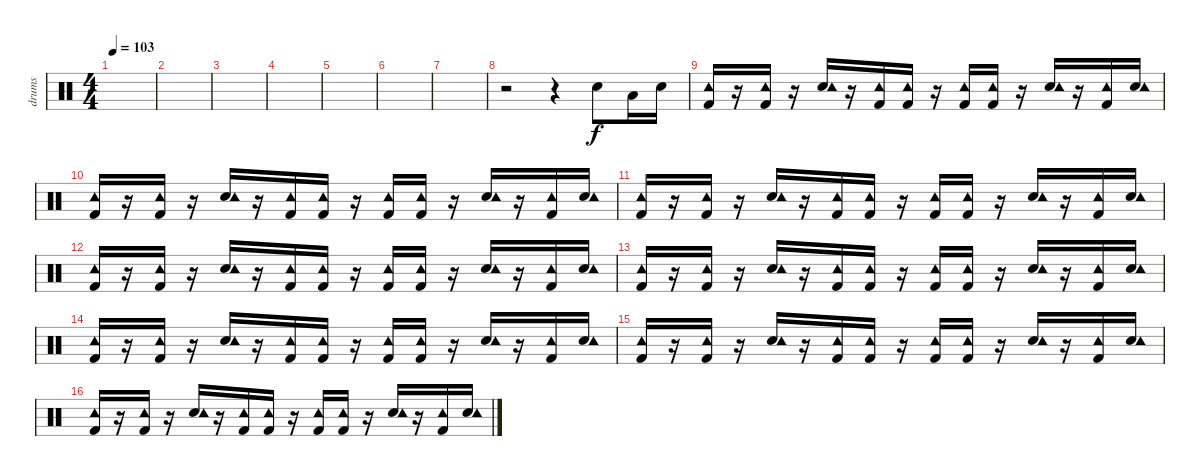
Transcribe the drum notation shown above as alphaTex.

\track ("drums" "drums") {instrument percussion}
\staff {score}
\articulation defaults
\ts (4 4)
\tempo 103
\clef neutral
\ks c
|
|
|
|
|
|
|
r.2 r.4 "Electric Snare (hit)".8 "Low Tom (hit)".16 "Electric Snare (hit)".16 |
("Kick (hit) 2" "Tambourine (hit)").16 r.16 ("Kick (hit) 2" "Tambourine (hit)").16 r.16 ("Electric Snare (hit)" "Tambourine (hit)").16 r.16 ("Kick (hit) 2" "Tambourine (hit)").16 ("Kick (hit) 2" "Tambourine (hit)").16 r.16 ("Kick (hit) 2" "Tambourine (hit)").16 ("Kick (hit) 2" "Tambourine (hit)").16 r.16 ("Electric Snare (hit)" "Tambourine (hit)").16 r.16 ("Kick (hit) 2" "Tambourine (hit)").16 ("Electric Snare (hit)" "Tambourine (hit)").16 |
("Kick (hit) 2" "Tambourine (hit)").16 r.16 ("Kick (hit) 2" "Tambourine (hit)").16 r.16 ("Electric Snare (hit)" "Tambourine (hit)").16 r.16 ("Kick (hit) 2" "Tambourine (hit)").16 ("Kick (hit) 2" "Tambourine (hit)").16 r.16 ("Kick (hit) 2" "Tambourine (hit)").16 ("Kick (hit) 2" "Tambourine (hit)").16 r.16 ("Electric Snare (hit)" "Tambourine (hit)").16 r.16 ("Kick (hit) 2" "Tambourine (hit)").16 ("Electric Snare (hit)" "Tambourine (hit)").16 |
("Kick (hit) 2" "Tambourine (hit)").16 r.16 ("Kick (hit) 2" "Tambourine (hit)").16 r.16 ("Electric Snare (hit)" "Tambourine (hit)").16 r.16 ("Kick (hit) 2" "Tambourine (hit)").16 ("Kick (hit) 2" "Tambourine (hit)").16 r.16 ("Kick (hit) 2" "Tambourine (hit)").16 ("Kick (hit) 2" "Tambourine (hit)").16 r.16 ("Electric Snare (hit)" "Tambourine (hit)").16 r.16 ("Kick (hit) 2" "Tambourine (hit)").16 ("Electric Snare (hit)" "Tambourine (hit)").16 |
("Kick (hit) 2" "Tambourine (hit)").16 r.16 ("Kick (hit) 2" "Tambourine (hit)").16 r.16 ("Electric Snare (hit)" "Tambourine (hit)").16 r.16 ("Kick (hit) 2" "Tambourine (hit)").16 ("Kick (hit) 2" "Tambourine (hit)").16 r.16 ("Kick (hit) 2" "Tambourine (hit)").16 ("Kick (hit) 2" "Tambourine (hit)").16 r.16 ("Electric Snare (hit)" "Tambourine (hit)").16 r.16 ("Kick (hit) 2" "Tambourine (hit)").16 ("Electric Snare (hit)" "Tambourine (hit)").16 |
("Kick (hit) 2" "Tambourine (hit)").16 r.16 ("Kick (hit) 2" "Tambourine (hit)").16 r.16 ("Electric Snare (hit)" "Tambourine (hit)").16 r.16 ("Kick (hit) 2" "Tambourine (hit)").16 ("Kick (hit) 2" "Tambourine (hit)").16 r.16 ("Kick (hit) 2" "Tambourine (hit)").16 ("Kick (hit) 2" "Tambourine (hit)").16 r.16 ("Electric Snare (hit)" "Tambourine (hit)").16 r.16 ("Kick (hit) 2" "Tambourine (hit)").16 ("Electric Snare (hit)" "Tambourine (hit)").16 |
("Kick (hit) 2" "Tambourine (hit)").16 r.16 ("Kick (hit) 2" "Tambourine (hit)").16 r.16 ("Electric Snare (hit)" "Tambourine (hit)").16 r.16 ("Kick (hit) 2" "Tambourine (hit)").16 ("Kick (hit) 2" "Tambourine (hit)").16 r.16 ("Kick (hit) 2" "Tambourine (hit)").16 ("Kick (hit) 2" "Tambourine (hit)").16 r.16 ("Electric Snare (hit)" "Tambourine (hit)").16 r.16 ("Kick (hit) 2" "Tambourine (hit)").16 ("Electric Snare (hit)" "Tambourine (hit)").16 |
("Kick (hit) 2" "Tambourine (hit)").16 r.16 ("Kick (hit) 2" "Tambourine (hit)").16 r.16 ("Electric Snare (hit)" "Tambourine (hit)").16 r.16 ("Kick (hit) 2" "Tambourine (hit)").16 ("Kick (hit) 2" "Tambourine (hit)").16 r.16 ("Kick (hit) 2" "Tambourine (hit)").16 ("Kick (hit) 2" "Tambourine (hit)").16 r.16 ("Electric Snare (hit)" "Tambourine (hit)").16 r.16 ("Kick (hit) 2" "Tambourine (hit)").16 ("Electric Snare (hit)" "Tambourine (hit)").16 |
("Kick (hit) 2" "Tambourine (hit)").16 r.16 ("Kick (hit) 2" "Tambourine (hit)").16 r.16 ("Electric Snare (hit)" "Tambourine (hit)").16 r.16 ("Kick (hit) 2" "Tambourine (hit)").16 ("Kick (hit) 2" "Tambourine (hit)").16 r.16 ("Kick (hit) 2" "Tambourine (hit)").16 ("Kick (hit) 2" "Tambourine (hit)").16 r.16 ("Electric Snare (hit)" "Tambourine (hit)").16 r.16 ("Kick (hit) 2" "Tambourine (hit)").16 ("Electric Snare (hit)" "Tambourine (hit)").16
